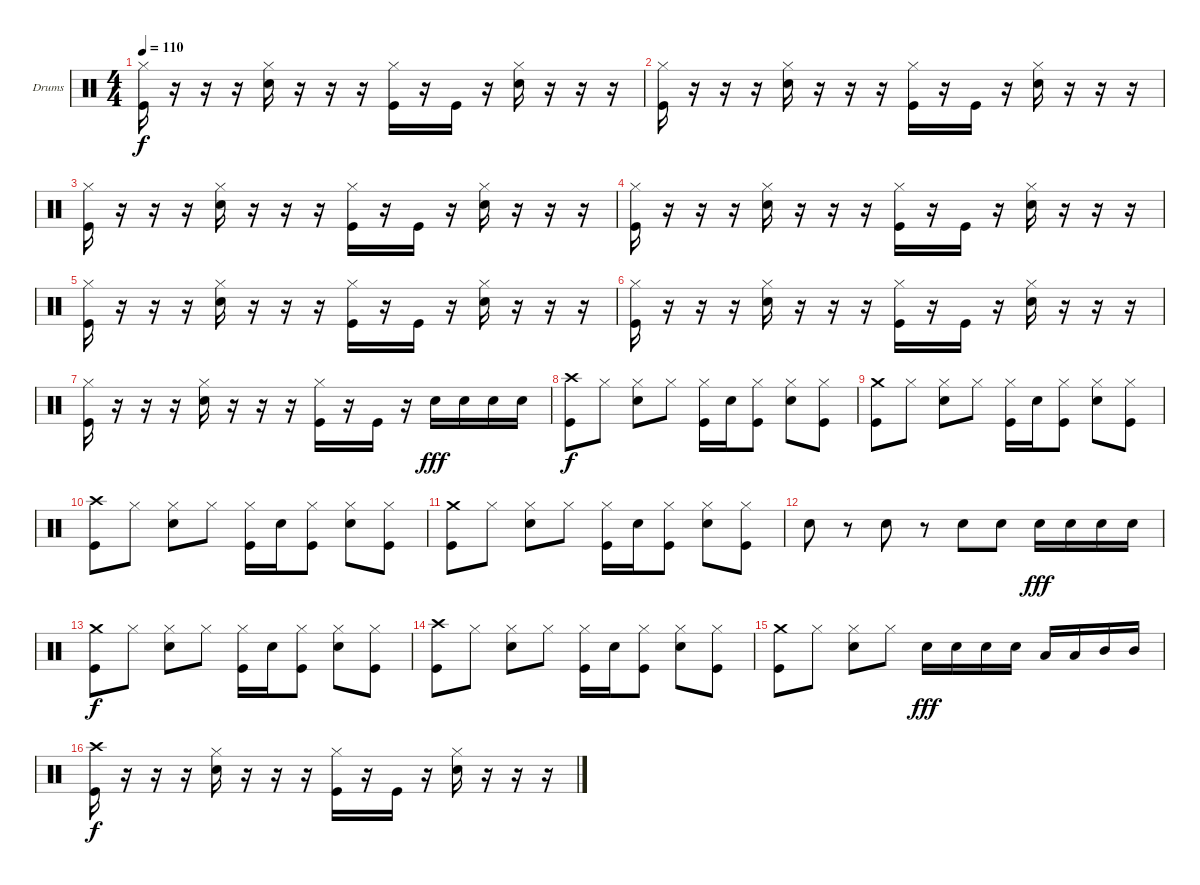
\defaultSystemsLayout 4
\bracketExtendMode groupsimilarinstruments
\firstSystemTrackNameOrientation horizontal
\otherSystemsTrackNameOrientation horizontal
\track ("Drumkit" "Drums") {instrument percussion}
\staff {score}
\articulation defaults
\ts (4 4)
\tempo 110
\clef neutral
\ks c
("Kick (hit)" "Hi-Hat (closed)").16{dy f} r.16 r.16 r.16 ("Hi-Hat (closed)" "Snare (hit) 2").16 r.16 r.16 r.16 ("Hi-Hat (closed)" "Kick (hit)").16 r.16 "Kick (hit)".16 r.16 ("Hi-Hat (closed)" "Snare (hit) 2").16 r.16 r.16 r.16 |
("Kick (hit)" "Hi-Hat (closed)").16 r.16 r.16 r.16 ("Hi-Hat (closed)" "Snare (hit) 2").16 r.16 r.16 r.16 ("Hi-Hat (closed)" "Kick (hit)").16 r.16 "Kick (hit)".16 r.16 ("Hi-Hat (closed)" "Snare (hit) 2").16 r.16 r.16 r.16 |
("Kick (hit)" "Hi-Hat (closed)").16 r.16 r.16 r.16 ("Hi-Hat (closed)" "Snare (hit) 2").16 r.16 r.16 r.16 ("Hi-Hat (closed)" "Kick (hit)").16 r.16 "Kick (hit)".16 r.16 ("Hi-Hat (closed)" "Snare (hit) 2").16 r.16 r.16 r.16 |
("Kick (hit)" "Hi-Hat (closed)").16 r.16 r.16 r.16 ("Hi-Hat (closed)" "Snare (hit) 2").16 r.16 r.16 r.16 ("Hi-Hat (closed)" "Kick (hit)").16 r.16 "Kick (hit)".16 r.16 ("Hi-Hat (closed)" "Snare (hit) 2").16 r.16 r.16 r.16 |
("Kick (hit)" "Hi-Hat (closed)").16 r.16 r.16 r.16 ("Hi-Hat (closed)" "Snare (hit) 2").16 r.16 r.16 r.16 ("Hi-Hat (closed)" "Kick (hit)").16 r.16 "Kick (hit)".16 r.16 ("Hi-Hat (closed)" "Snare (hit) 2").16 r.16 r.16 r.16 |
("Kick (hit)" "Hi-Hat (closed)").16 r.16 r.16 r.16 ("Hi-Hat (closed)" "Snare (hit) 2").16 r.16 r.16 r.16 ("Hi-Hat (closed)" "Kick (hit)").16 r.16 "Kick (hit)".16 r.16 ("Hi-Hat (closed)" "Snare (hit) 2").16 r.16 r.16 r.16 |
("Kick (hit)" "Hi-Hat (closed)").16 r.16 r.16 r.16 ("Hi-Hat (closed)" "Snare (hit) 2").16 r.16 r.16 r.16 ("Hi-Hat (closed)" "Kick (hit)").16 r.16 "Kick (hit)".16 r.16 "Snare (hit) 2".16{dy fff} "Snare (hit) 2".16 "Snare (hit) 2".16 "Snare (hit) 2".16 |
("Kick (hit)" "Crash high (hit)").8{dy f} "Hi-Hat (closed)".8 ("Hi-Hat (closed)" "Snare (hit) 2").8 "Hi-Hat (closed)".8 ("Hi-Hat (closed)" "Kick (hit)").16 "Snare (hit) 2".16 ("Hi-Hat (closed)" "Kick (hit)").8 ("Hi-Hat (closed)" "Snare (hit) 2").8 ("Hi-Hat (closed)" "Kick (hit)").8 |
("Kick (hit)" "Crash medium (hit)").8 "Hi-Hat (closed)".8 ("Hi-Hat (closed)" "Snare (hit) 2").8 "Hi-Hat (closed)".8 ("Hi-Hat (closed)" "Kick (hit)").16 "Snare (hit) 2".16 ("Hi-Hat (closed)" "Kick (hit)").8 ("Hi-Hat (closed)" "Snare (hit) 2").8 ("Hi-Hat (closed)" "Kick (hit)").8 |
("Kick (hit)" "Crash high (hit)").8 "Hi-Hat (closed)".8 ("Hi-Hat (closed)" "Snare (hit) 2").8 "Hi-Hat (closed)".8 ("Hi-Hat (closed)" "Kick (hit)").16 "Snare (hit) 2".16 ("Hi-Hat (closed)" "Kick (hit)").8 ("Hi-Hat (closed)" "Snare (hit) 2").8 ("Hi-Hat (closed)" "Kick (hit)").8 |
("Kick (hit)" "Crash medium (hit)").8 "Hi-Hat (closed)".8 ("Hi-Hat (closed)" "Snare (hit) 2").8 "Hi-Hat (closed)".8 ("Hi-Hat (closed)" "Kick (hit)").16 "Snare (hit) 2".16 ("Hi-Hat (closed)" "Kick (hit)").8 ("Hi-Hat (closed)" "Snare (hit) 2").8 ("Hi-Hat (closed)" "Kick (hit)").8 |
"Snare (hit) 2".8 r.8 "Snare (hit) 2".8 r.8 "Snare (hit) 2".8 "Snare (hit) 2".8 "Snare (hit) 2".16{dy fff} "Snare (hit) 2".16 "Snare (hit) 2".16 "Snare (hit) 2".16 |
("Kick (hit)" "Crash medium (hit)").8{dy f} "Hi-Hat (closed)".8 ("Hi-Hat (closed)" "Snare (hit) 2").8 "Hi-Hat (closed)".8 ("Hi-Hat (closed)" "Kick (hit)").16 "Snare (hit) 2".16 ("Hi-Hat (closed)" "Kick (hit)").8 ("Hi-Hat (closed)" "Snare (hit) 2").8 ("Hi-Hat (closed)" "Kick (hit)").8 |
("Kick (hit)" "Crash high (hit)").8 "Hi-Hat (closed)".8 ("Hi-Hat (closed)" "Snare (hit) 2").8 "Hi-Hat (closed)".8 ("Hi-Hat (closed)" "Kick (hit)").16 "Snare (hit) 2".16 ("Hi-Hat (closed)" "Kick (hit)").8 ("Hi-Hat (closed)" "Snare (hit) 2").8 ("Hi-Hat (closed)" "Kick (hit)").8 |
("Kick (hit)" "Crash medium (hit)").8 "Hi-Hat (closed)".8 ("Hi-Hat (closed)" "Snare (hit) 2").8 "Hi-Hat (closed)".8 "Snare (hit) 2".16{dy fff} "Snare (hit) 2".16 "Snare (hit) 2".16 "Snare (hit) 2".16 "Low Tom (hit)".16 "Low Tom (hit)".16 "Mid Tom (hit)".16 "Mid Tom (hit)".16 |
("Kick (hit)" "Crash high (hit)").16{dy f} r.16 r.16 r.16 ("Hi-Hat (closed)" "Snare (hit) 2").16 r.16 r.16 r.16 ("Hi-Hat (closed)" "Kick (hit)").16 r.16 "Kick (hit)".16 r.16 ("Hi-Hat (closed)" "Snare (hit) 2").16 r.16 r.16 r.16
